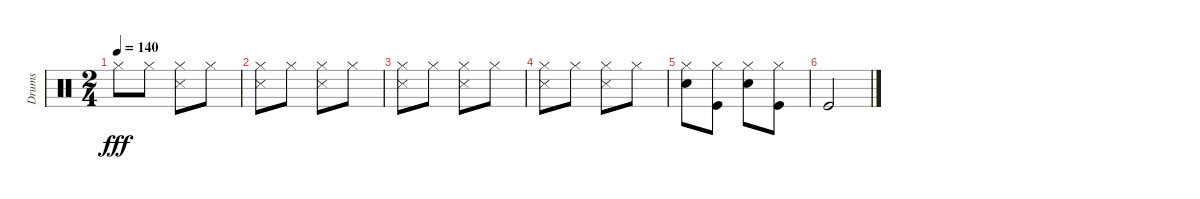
\track ("Drums" "Drums") {instrument percussion}
\staff {score}
\articulation defaults
\ts (2 4)
\tempo 140
\clef neutral
\ks c "Hi-Hat (closed)".8{dy fff} "Hi-Hat (closed)".8
("Hi-Hat (closed)" "Snare (side stick) 3").8 "Hi-Hat (closed)".8 |
("Hi-Hat (closed)" "Snare (side stick) 3").8 "Hi-Hat (closed)".8 ("Hi-Hat (closed)" "Snare (side stick) 3").8 "Hi-Hat (closed)".8 |
("Hi-Hat (closed)" "Snare (side stick) 3").8 "Hi-Hat (closed)".8 ("Hi-Hat (closed)" "Snare (side stick) 3").8 "Hi-Hat (closed)".8 |
("Hi-Hat (closed)" "Snare (side stick) 3").8 "Hi-Hat (closed)".8 ("Hi-Hat (closed)" "Snare (side stick) 3").8 "Hi-Hat (closed)".8 |
("Hi-Hat (closed)" "Electric Snare (hit)").8 ("Hi-Hat (closed)" "Kick (hit)").8 ("Hi-Hat (closed)" "Electric Snare (hit)").8 ("Hi-Hat (closed)" "Kick (hit)").8 |
"Kick (hit)".2
